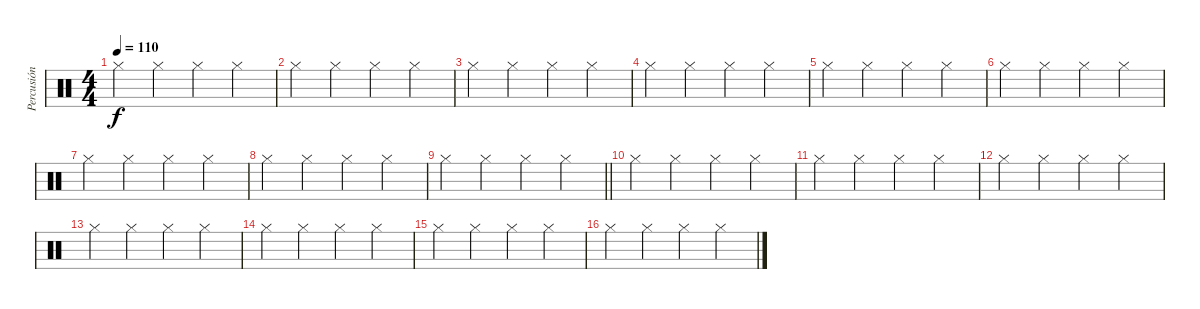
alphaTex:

\track ("Percusión" "Percusión") {instrument percussion}
\staff {score}
\articulation defaults
\ts (4 4)
\tempo 110
\clef neutral
\ks c "Hi-Hat (closed)".4{dy f} "Hi-Hat (closed)".4 "Hi-Hat (closed)".4 "Hi-Hat (closed)".4
|
"Hi-Hat (closed)".4 "Hi-Hat (closed)".4 "Hi-Hat (closed)".4 "Hi-Hat (closed)".4 |
"Hi-Hat (closed)".4 "Hi-Hat (closed)".4 "Hi-Hat (closed)".4 "Hi-Hat (closed)".4 |
"Hi-Hat (closed)".4 "Hi-Hat (closed)".4 "Hi-Hat (closed)".4 "Hi-Hat (closed)".4 |
"Hi-Hat (closed)".4 "Hi-Hat (closed)".4 "Hi-Hat (closed)".4 "Hi-Hat (closed)".4 |
"Hi-Hat (closed)".4 "Hi-Hat (closed)".4 "Hi-Hat (closed)".4 "Hi-Hat (closed)".4 |
"Hi-Hat (closed)".4 "Hi-Hat (closed)".4 "Hi-Hat (closed)".4 "Hi-Hat (closed)".4 |
"Hi-Hat (closed)".4 "Hi-Hat (closed)".4 "Hi-Hat (closed)".4 "Hi-Hat (closed)".4 |
\barLineRight lightlight "Hi-Hat (closed)".4 "Hi-Hat (closed)".4 "Hi-Hat (closed)".4 "Hi-Hat (closed)".4
|
"Hi-Hat (closed)".4 "Hi-Hat (closed)".4 "Hi-Hat (closed)".4 "Hi-Hat (closed)".4 |
"Hi-Hat (closed)".4 "Hi-Hat (closed)".4 "Hi-Hat (closed)".4 "Hi-Hat (closed)".4 |
"Hi-Hat (closed)".4 "Hi-Hat (closed)".4 "Hi-Hat (closed)".4 "Hi-Hat (closed)".4 |
"Hi-Hat (closed)".4 "Hi-Hat (closed)".4 "Hi-Hat (closed)".4 "Hi-Hat (closed)".4 |
"Hi-Hat (closed)".4 "Hi-Hat (closed)".4 "Hi-Hat (closed)".4 "Hi-Hat (closed)".4 |
"Hi-Hat (closed)".4 "Hi-Hat (closed)".4 "Hi-Hat (closed)".4 "Hi-Hat (closed)".4 |
"Hi-Hat (closed)".4 "Hi-Hat (closed)".4 "Hi-Hat (closed)".4 "Hi-Hat (closed)".4
